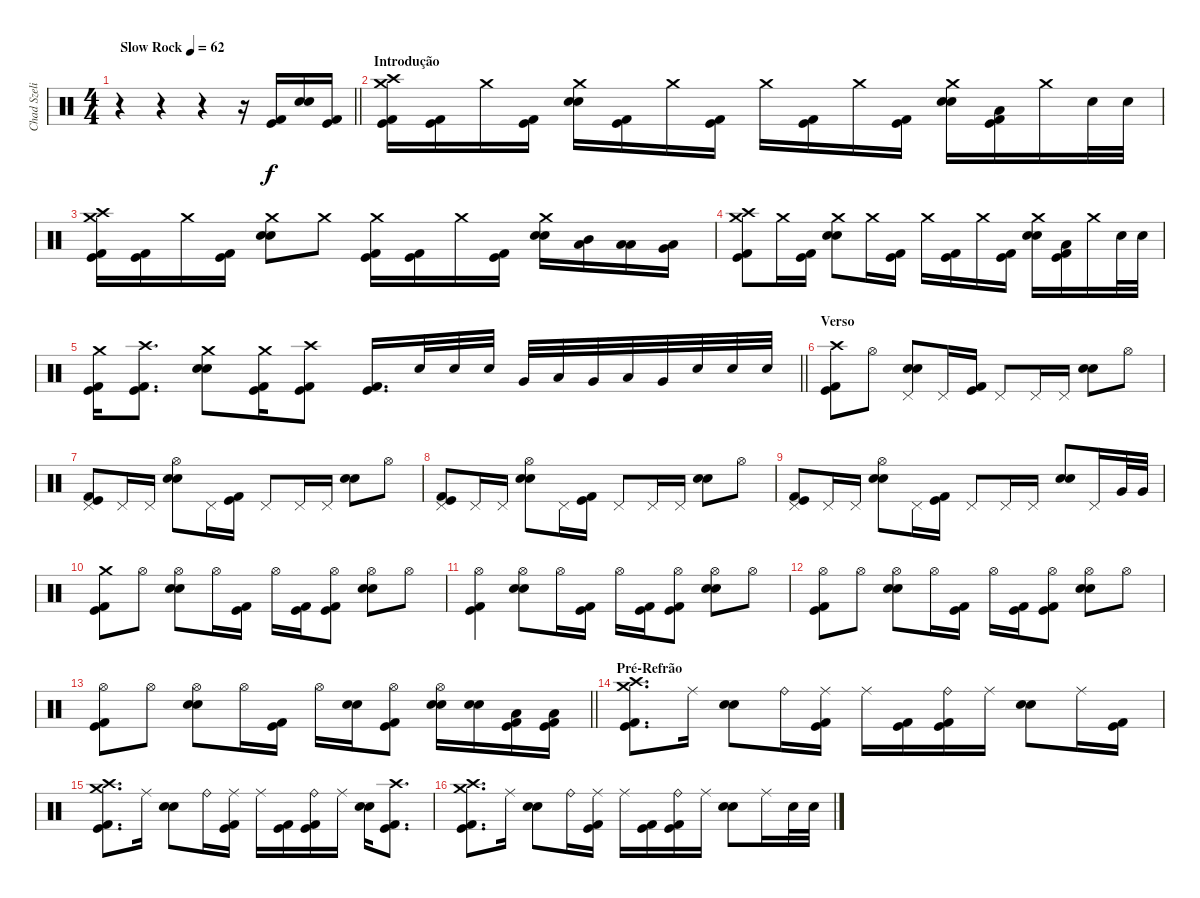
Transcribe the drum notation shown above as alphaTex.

\track ("Chad Szeliga" "Chad Szeli") {instrument percussion}
\staff {score}
\articulation defaults
\ts (4 4)
\tempo (62 "Slow Rock")
\clef neutral
\barLineRight lightlight
\ks c
r.4{dy f} r.4 r.4 r.16 ("Kick (hit) 2" "Kick (hit)").16 ("Snare (hit) 2" "Snare (hit) 2").16 ("Kick (hit) 2" "Kick (hit)").16 |
\section ("" "Introdução")
("Crash high (hit)" "Kick (hit) 2" "Kick (hit)" "Crash medium (hit)").16 ("Kick (hit) 2" "Kick (hit)").16 "Crash medium (hit)".16 ("Kick (hit) 2" "Kick (hit)").16 ("Crash medium (hit)" "Snare (hit) 2" "Snare (hit) 2").16 ("Kick (hit) 2" "Kick (hit)").16 "Crash medium (hit)".16 ("Kick (hit) 2" "Kick (hit)").16 "Crash medium (hit)".16 ("Kick (hit) 2" "Kick (hit)").16 "Crash medium (hit)".16 ("Kick (hit) 2" "Kick (hit)").16 ("Crash medium (hit)" "Snare (hit) 2" "Snare (hit) 2").16 ("Kick (hit) 2" "Kick (hit)" "Low Tom (hit)").16 "Crash medium (hit)".16 "Snare (hit) 2".32 "Snare (hit) 2".32 |
("Crash high (hit)" "Kick (hit) 2" "Kick (hit)" "Crash medium (hit)").16 ("Kick (hit) 2" "Kick (hit)").16 "Crash medium (hit)".16 ("Kick (hit) 2" "Kick (hit)").16 ("Crash medium (hit)" "Snare (hit) 2" "Snare (hit) 2").8 "Crash medium (hit)".8 ("Crash medium (hit)" "Kick (hit) 2" "Kick (hit)").16 ("Kick (hit) 2" "Kick (hit)").16 "Crash medium (hit)".16 ("Kick (hit) 2" "Kick (hit)").16 ("Crash medium (hit)" "Snare (hit) 2" "Snare (hit) 2").16 ("Mid Tom (hit)" "Low Tom (hit)").16 ("Low Tom (hit)" "Low Tom (hit)").16 ("Very Low Tom (hit)" "Low Tom (hit)").16 |
("Crash high (hit)" "Kick (hit) 2" "Kick (hit)" "Crash medium (hit)").8 "Crash medium (hit)".16 ("Kick (hit) 2" "Kick (hit)").16 ("Crash medium (hit)" "Snare (hit) 2" "Snare (hit) 2").8 "Crash medium (hit)".16 ("Kick (hit) 2" "Kick (hit)").16 "Crash medium (hit)".16 ("Kick (hit) 2" "Kick (hit)").16 "Crash medium (hit)".16 ("Kick (hit) 2" "Kick (hit)").16 ("Crash medium (hit)" "Snare (hit) 2" "Snare (hit) 2").16 ("Kick (hit) 2" "Kick (hit)" "Low Tom (hit)").16 "Crash medium (hit)".16 "Snare (hit) 2".32 "Snare (hit) 2".32 |
\barLineRight lightlight
("Crash medium (hit)" "Kick (hit) 2" "Kick (hit)").16 ("Crash high (hit)" "Kick (hit) 2" "Kick (hit)").8{d} ("Crash medium (hit)" "Snare (hit) 2" "Snare (hit) 2").8 ("Crash medium (hit)" "Kick (hit) 2" "Kick (hit)").16 ("Crash high (hit)" "Kick (hit) 2" "Kick (hit)").8 ("Kick (hit) 2" "Kick (hit)").16{d} "Snare (hit) 2".32 "Snare (hit) 2".32 "Snare (hit) 2".32 "Very Low Tom (hit)".32 "Low Tom (hit)".32 "Very Low Tom (hit)".32 "Low Tom (hit)".32 "Very Low Tom (hit)".32 "Snare (hit) 2".32 "Snare (hit) 2".32 "Snare (hit) 2".32 |
\section ("" "Verso")
("Crash high (hit)" "Kick (hit) 2" "Kick (hit)").8 "Hi-Hat (open)".8 ("Snare (hit) 2" "Snare (hit) 2" "Pedal Hi-Hat (hit)").8 "Pedal Hi-Hat (hit)".16 ("Kick (hit) 2" "Kick (hit)").16 "Pedal Hi-Hat (hit)".8 "Pedal Hi-Hat (hit)".16 "Pedal Hi-Hat (hit)".16 ("Snare (hit) 2" "Snare (hit) 2").8 "Hi-Hat (open)".8 |
("Kick (hit) 2" "Kick (hit)" "Pedal Hi-Hat (hit)").8 "Pedal Hi-Hat (hit)".16 "Pedal Hi-Hat (hit)".16 ("Snare (hit) 2" "Snare (hit) 2" "Hi-Hat (open)").8 "Pedal Hi-Hat (hit)".16 ("Kick (hit) 2" "Kick (hit)").16 "Pedal Hi-Hat (hit)".8 "Pedal Hi-Hat (hit)".16 "Pedal Hi-Hat (hit)".16 ("Snare (hit) 2" "Snare (hit) 2").8 "Hi-Hat (open)".8 |
("Kick (hit) 2" "Kick (hit)" "Pedal Hi-Hat (hit)").8 "Pedal Hi-Hat (hit)".16 "Pedal Hi-Hat (hit)".16 ("Snare (hit) 2" "Snare (hit) 2" "Hi-Hat (open)").8 "Pedal Hi-Hat (hit)".16 ("Kick (hit) 2" "Kick (hit)").16 "Pedal Hi-Hat (hit)".8 "Pedal Hi-Hat (hit)".16 "Pedal Hi-Hat (hit)".16 ("Snare (hit) 2" "Snare (hit) 2").8 "Hi-Hat (open)".8 |
("Kick (hit) 2" "Kick (hit)" "Pedal Hi-Hat (hit)").8 "Pedal Hi-Hat (hit)".16 "Pedal Hi-Hat (hit)".16 ("Snare (hit) 2" "Snare (hit) 2" "Hi-Hat (open)").8 "Pedal Hi-Hat (hit)".16 ("Kick (hit) 2" "Kick (hit)").16 "Pedal Hi-Hat (hit)".8 "Pedal Hi-Hat (hit)".16 "Pedal Hi-Hat (hit)".16 ("Snare (hit) 2" "Snare (hit) 2").8 "Pedal Hi-Hat (hit)".16 "Very Low Tom (hit)".32 "Very Low Tom (hit)".32 |
("Crash medium (hit)" "Kick (hit) 2" "Kick (hit)").8 "Hi-Hat (open)".8 ("Snare (hit) 2" "Snare (hit) 2" "Hi-Hat (open)").8 "Hi-Hat (open)".16 ("Kick (hit) 2" "Kick (hit)").16 "Hi-Hat (open)".16 ("Kick (hit) 2" "Kick (hit)").16 ("Kick (hit) 2" "Kick (hit)" "Hi-Hat (open)").8 ("Snare (hit) 2" "Snare (hit) 2" "Hi-Hat (open)").8 "Hi-Hat (open)".8 |
("Kick (hit) 2" "Kick (hit)" "Hi-Hat (open)").4 ("Snare (hit) 2" "Snare (hit) 2" "Hi-Hat (open)").8 "Hi-Hat (open)".16 ("Kick (hit) 2" "Kick (hit)").16 "Hi-Hat (open)".16 ("Kick (hit) 2" "Kick (hit)").16 ("Kick (hit) 2" "Kick (hit)" "Hi-Hat (open)").8 ("Snare (hit) 2" "Snare (hit) 2" "Hi-Hat (open)").8 "Hi-Hat (open)".8 |
("Kick (hit) 2" "Kick (hit)" "Hi-Hat (open)").8 "Hi-Hat (open)".8 ("Snare (hit) 2" "Snare (hit) 2" "Hi-Hat (open)").8 "Hi-Hat (open)".16 ("Kick (hit) 2" "Kick (hit)").16 "Hi-Hat (open)".16 ("Kick (hit) 2" "Kick (hit)").16 ("Kick (hit) 2" "Kick (hit)" "Hi-Hat (open)").8 ("Snare (hit) 2" "Snare (hit) 2" "Hi-Hat (open)").8 "Hi-Hat (open)".8 |
\barLineRight lightlight
("Kick (hit) 2" "Kick (hit)" "Hi-Hat (open)").8 "Hi-Hat (open)".8 ("Snare (hit) 2" "Snare (hit) 2" "Hi-Hat (open)").8 "Hi-Hat (open)".16 ("Kick (hit) 2" "Kick (hit)").16 "Hi-Hat (open)".16 ("Snare (hit) 2" "Snare (hit) 2").16 ("Kick (hit) 2" "Kick (hit)" "Hi-Hat (open)").8 ("Snare (hit) 2" "Snare (hit) 2" "Hi-Hat (open)").16 ("Snare (hit) 2" "Snare (hit) 2").16 ("Kick (hit) 2" "Kick (hit)" "Low Tom (hit)").16 ("Kick (hit) 2" "Kick (hit)" "Low Tom (hit)").16 |
\section ("" "Pré-Refrão")
("Crash high (hit)" "Kick (hit) 2" "Kick (hit)" "Crash medium (hit)").8{d} "Ride (middle)".16 ("Snare (hit) 2" "Snare (hit) 2").8 "Ride (bell)".16 ("Ride (middle)" "Kick (hit) 2" "Kick (hit)").16 "Ride (middle)".16 ("Kick (hit) 2" "Kick (hit)").16 ("Ride (bell)" "Kick (hit) 2" "Kick (hit)").16 "Ride (middle)".16 ("Snare (hit) 2" "Snare (hit) 2").8 "Ride (middle)".16 ("Kick (hit) 2" "Kick (hit)").16 |
("Crash high (hit)" "Kick (hit) 2" "Kick (hit)" "Crash medium (hit)").8{d} "Ride (middle)".16 ("Snare (hit) 2" "Snare (hit) 2").8 "Ride (bell)".16 ("Ride (middle)" "Kick (hit) 2" "Kick (hit)").16 "Ride (middle)".16 ("Kick (hit) 2" "Kick (hit)").16 ("Ride (bell)" "Kick (hit) 2" "Kick (hit)").16 "Ride (middle)".16 ("Snare (hit) 2" "Snare (hit) 2").16 ("Crash high (hit)" "Kick (hit) 2" "Kick (hit)").8{d} |
("Crash high (hit)" "Kick (hit) 2" "Kick (hit)" "Crash medium (hit)").8{d} "Ride (middle)".16 ("Snare (hit) 2" "Snare (hit) 2").8 "Ride (bell)".16 ("Ride (middle)" "Kick (hit) 2" "Kick (hit)").16 "Ride (middle)".16 ("Kick (hit) 2" "Kick (hit)").16 ("Ride (bell)" "Kick (hit) 2" "Kick (hit)").16 "Ride (middle)".16 ("Snare (hit) 2" "Snare (hit) 2").8 "Ride (middle)".16 "Snare (hit) 2".32 "Snare (hit) 2".32
